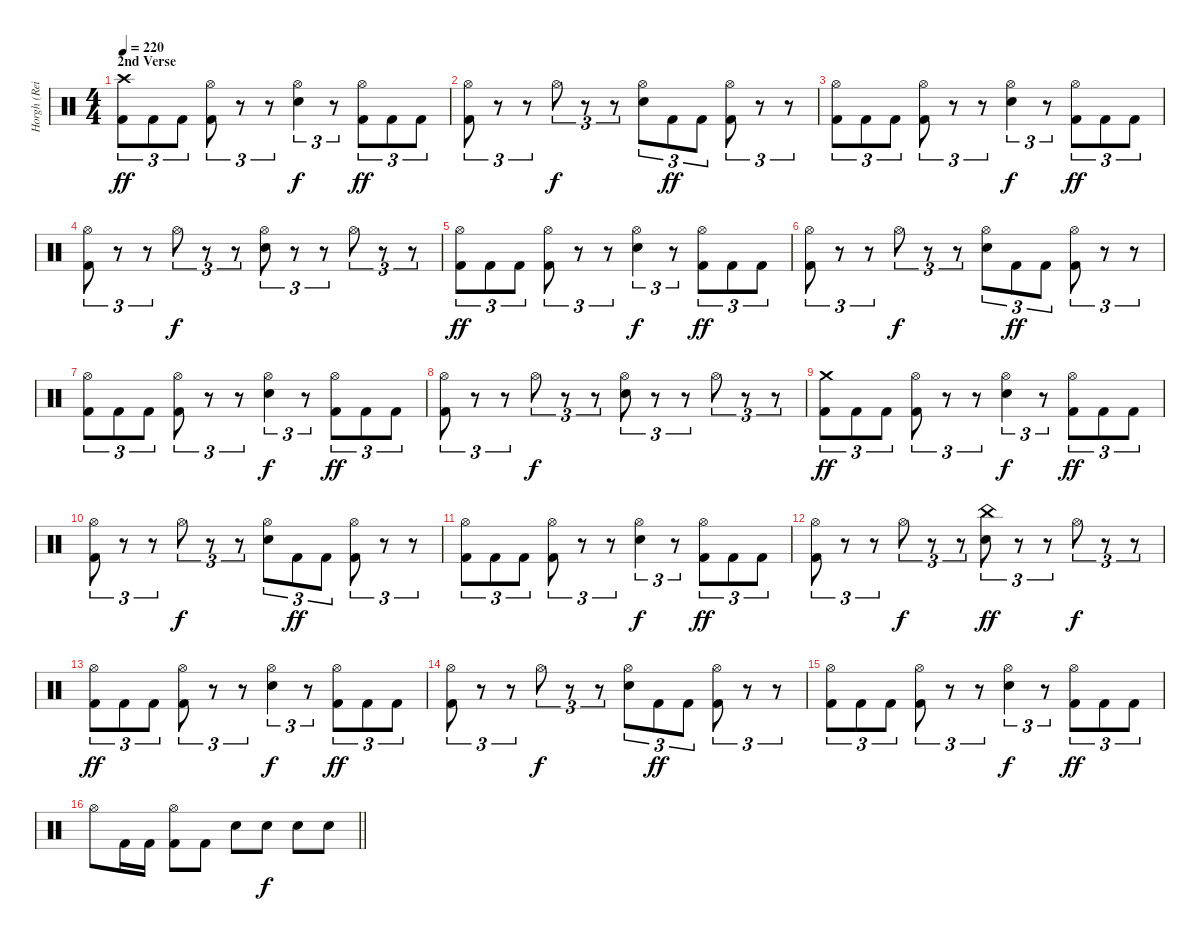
\track ("Horgh (Reidar Horghagen)" "Horgh (Rei") {instrument percussion}
\staff {score}
\articulation defaults
\ts (4 4)
\section ("" "2nd Verse")
\tempo 220
\clef neutral
\ks c
("Crash high (hit)" "Kick (hit) 2").8{tu (3 2) dy ff} "Kick (hit) 2".8{tu (3 2)} "Kick (hit) 2".8{tu (3 2)} ("Hi-Hat (open)" "Kick (hit) 2").8{tu (3 2)} r.8{tu (3 2)} r.8{tu (3 2)} ("Hi-Hat (open)" "Snare (hit) 2").4{tu (3 2) dy f} r.8{tu (3 2)} ("Hi-Hat (open)" "Kick (hit) 2").8{tu (3 2) dy ff} "Kick (hit) 2".8{tu (3 2)} "Kick (hit) 2".8{tu (3 2)} |
("Hi-Hat (open)" "Kick (hit) 2").8{tu (3 2)} r.8{tu (3 2)} r.8{tu (3 2)} "Hi-Hat (open)".8{tu (3 2) dy f} r.8{tu (3 2)} r.8{tu (3 2)} ("Hi-Hat (open)" "Snare (hit) 2").8{tu (3 2)} "Kick (hit) 2".8{tu (3 2) dy ff} "Kick (hit) 2".8{tu (3 2)} ("Hi-Hat (open)" "Kick (hit) 2").8{tu (3 2)} r.8{tu (3 2)} r.8{tu (3 2)} |
("Hi-Hat (open)" "Kick (hit) 2").8{tu (3 2)} "Kick (hit) 2".8{tu (3 2)} "Kick (hit) 2".8{tu (3 2)} ("Hi-Hat (open)" "Kick (hit) 2").8{tu (3 2)} r.8{tu (3 2)} r.8{tu (3 2)} ("Hi-Hat (open)" "Snare (hit) 2").4{tu (3 2) dy f} r.8{tu (3 2)} ("Hi-Hat (open)" "Kick (hit) 2").8{tu (3 2) dy ff} "Kick (hit) 2".8{tu (3 2)} "Kick (hit) 2".8{tu (3 2)} |
("Hi-Hat (open)" "Kick (hit) 2").8{tu (3 2)} r.8{tu (3 2)} r.8{tu (3 2)} "Hi-Hat (open)".8{tu (3 2) dy f} r.8{tu (3 2)} r.8{tu (3 2)} ("Hi-Hat (open)" "Snare (hit) 2").8{tu (3 2)} r.8{tu (3 2)} r.8{tu (3 2)} "Hi-Hat (open)".8{tu (3 2)} r.8{tu (3 2)} r.8{tu (3 2)} |
("Hi-Hat (open)" "Kick (hit) 2").8{tu (3 2) dy ff} "Kick (hit) 2".8{tu (3 2)} "Kick (hit) 2".8{tu (3 2)} ("Hi-Hat (open)" "Kick (hit) 2").8{tu (3 2)} r.8{tu (3 2)} r.8{tu (3 2)} ("Hi-Hat (open)" "Snare (hit) 2").4{tu (3 2) dy f} r.8{tu (3 2)} ("Hi-Hat (open)" "Kick (hit) 2").8{tu (3 2) dy ff} "Kick (hit) 2".8{tu (3 2)} "Kick (hit) 2".8{tu (3 2)} |
("Hi-Hat (open)" "Kick (hit) 2").8{tu (3 2)} r.8{tu (3 2)} r.8{tu (3 2)} "Hi-Hat (open)".8{tu (3 2) dy f} r.8{tu (3 2)} r.8{tu (3 2)} ("Hi-Hat (open)" "Snare (hit) 2").8{tu (3 2)} "Kick (hit) 2".8{tu (3 2) dy ff} "Kick (hit) 2".8{tu (3 2)} ("Hi-Hat (open)" "Kick (hit) 2").8{tu (3 2)} r.8{tu (3 2)} r.8{tu (3 2)} |
("Hi-Hat (open)" "Kick (hit) 2").8{tu (3 2)} "Kick (hit) 2".8{tu (3 2)} "Kick (hit) 2".8{tu (3 2)} ("Hi-Hat (open)" "Kick (hit) 2").8{tu (3 2)} r.8{tu (3 2)} r.8{tu (3 2)} ("Hi-Hat (open)" "Snare (hit) 2").4{tu (3 2) dy f} r.8{tu (3 2)} ("Hi-Hat (open)" "Kick (hit) 2").8{tu (3 2) dy ff} "Kick (hit) 2".8{tu (3 2)} "Kick (hit) 2".8{tu (3 2)} |
("Hi-Hat (open)" "Kick (hit) 2").8{tu (3 2)} r.8{tu (3 2)} r.8{tu (3 2)} "Hi-Hat (open)".8{tu (3 2) dy f} r.8{tu (3 2)} r.8{tu (3 2)} ("Hi-Hat (open)" "Snare (hit) 2").8{tu (3 2)} r.8{tu (3 2)} r.8{tu (3 2)} "Hi-Hat (open)".8{tu (3 2)} r.8{tu (3 2)} r.8{tu (3 2)} |
("Crash medium (hit)" "Kick (hit) 2").8{tu (3 2) dy ff} "Kick (hit) 2".8{tu (3 2)} "Kick (hit) 2".8{tu (3 2)} ("Hi-Hat (open)" "Kick (hit) 2").8{tu (3 2)} r.8{tu (3 2)} r.8{tu (3 2)} ("Hi-Hat (open)" "Snare (hit) 2").4{tu (3 2) dy f} r.8{tu (3 2)} ("Hi-Hat (open)" "Kick (hit) 2").8{tu (3 2) dy ff} "Kick (hit) 2".8{tu (3 2)} "Kick (hit) 2".8{tu (3 2)} |
("Hi-Hat (open)" "Kick (hit) 2").8{tu (3 2)} r.8{tu (3 2)} r.8{tu (3 2)} "Hi-Hat (open)".8{tu (3 2) dy f} r.8{tu (3 2)} r.8{tu (3 2)} ("Hi-Hat (open)" "Snare (hit) 2").8{tu (3 2)} "Kick (hit) 2".8{tu (3 2) dy ff} "Kick (hit) 2".8{tu (3 2)} ("Hi-Hat (open)" "Kick (hit) 2").8{tu (3 2)} r.8{tu (3 2)} r.8{tu (3 2)} |
("Hi-Hat (open)" "Kick (hit) 2").8{tu (3 2)} "Kick (hit) 2".8{tu (3 2)} "Kick (hit) 2".8{tu (3 2)} ("Hi-Hat (open)" "Kick (hit) 2").8{tu (3 2)} r.8{tu (3 2)} r.8{tu (3 2)} ("Hi-Hat (open)" "Snare (hit) 2").4{tu (3 2) dy f} r.8{tu (3 2)} ("Hi-Hat (open)" "Kick (hit) 2").8{tu (3 2) dy ff} "Kick (hit) 2".8{tu (3 2)} "Kick (hit) 2".8{tu (3 2)} |
("Hi-Hat (open)" "Kick (hit) 2").8{tu (3 2)} r.8{tu (3 2)} r.8{tu (3 2)} "Hi-Hat (open)".8{tu (3 2) dy f} r.8{tu (3 2)} r.8{tu (3 2)} ("China (hit)" "Snare (hit) 2").8{tu (3 2) dy ff} r.8{tu (3 2)} r.8{tu (3 2)} "Hi-Hat (open)".8{tu (3 2) dy f} r.8{tu (3 2)} r.8{tu (3 2)} |
("Hi-Hat (open)" "Kick (hit) 2").8{tu (3 2) dy ff} "Kick (hit) 2".8{tu (3 2)} "Kick (hit) 2".8{tu (3 2)} ("Hi-Hat (open)" "Kick (hit) 2").8{tu (3 2)} r.8{tu (3 2)} r.8{tu (3 2)} ("Hi-Hat (open)" "Snare (hit) 2").4{tu (3 2) dy f} r.8{tu (3 2)} ("Hi-Hat (open)" "Kick (hit) 2").8{tu (3 2) dy ff} "Kick (hit) 2".8{tu (3 2)} "Kick (hit) 2".8{tu (3 2)} |
("Hi-Hat (open)" "Kick (hit) 2").8{tu (3 2)} r.8{tu (3 2)} r.8{tu (3 2)} "Hi-Hat (open)".8{tu (3 2) dy f} r.8{tu (3 2)} r.8{tu (3 2)} ("Hi-Hat (open)" "Snare (hit) 2").8{tu (3 2)} "Kick (hit) 2".8{tu (3 2) dy ff} "Kick (hit) 2".8{tu (3 2)} ("Hi-Hat (open)" "Kick (hit) 2").8{tu (3 2)} r.8{tu (3 2)} r.8{tu (3 2)} |
("Hi-Hat (open)" "Kick (hit) 2").8{tu (3 2)} "Kick (hit) 2".8{tu (3 2)} "Kick (hit) 2".8{tu (3 2)} ("Hi-Hat (open)" "Kick (hit) 2").8{tu (3 2)} r.8{tu (3 2)} r.8{tu (3 2)} ("Hi-Hat (open)" "Snare (hit) 2").4{tu (3 2) dy f} r.8{tu (3 2)} ("Hi-Hat (open)" "Kick (hit) 2").8{tu (3 2) dy ff} "Kick (hit) 2".8{tu (3 2)} "Kick (hit) 2".8{tu (3 2)} |
\barLineRight lightlight "Hi-Hat (open)".8 "Kick (hit) 2".16 "Kick (hit) 2".16
("Hi-Hat (open)" "Kick (hit) 2").8 "Kick (hit) 2".8 "Snare (hit) 2".8 "Snare (hit) 2".8{dy f} "Snare (hit) 2".8 "Snare (hit) 2".8
